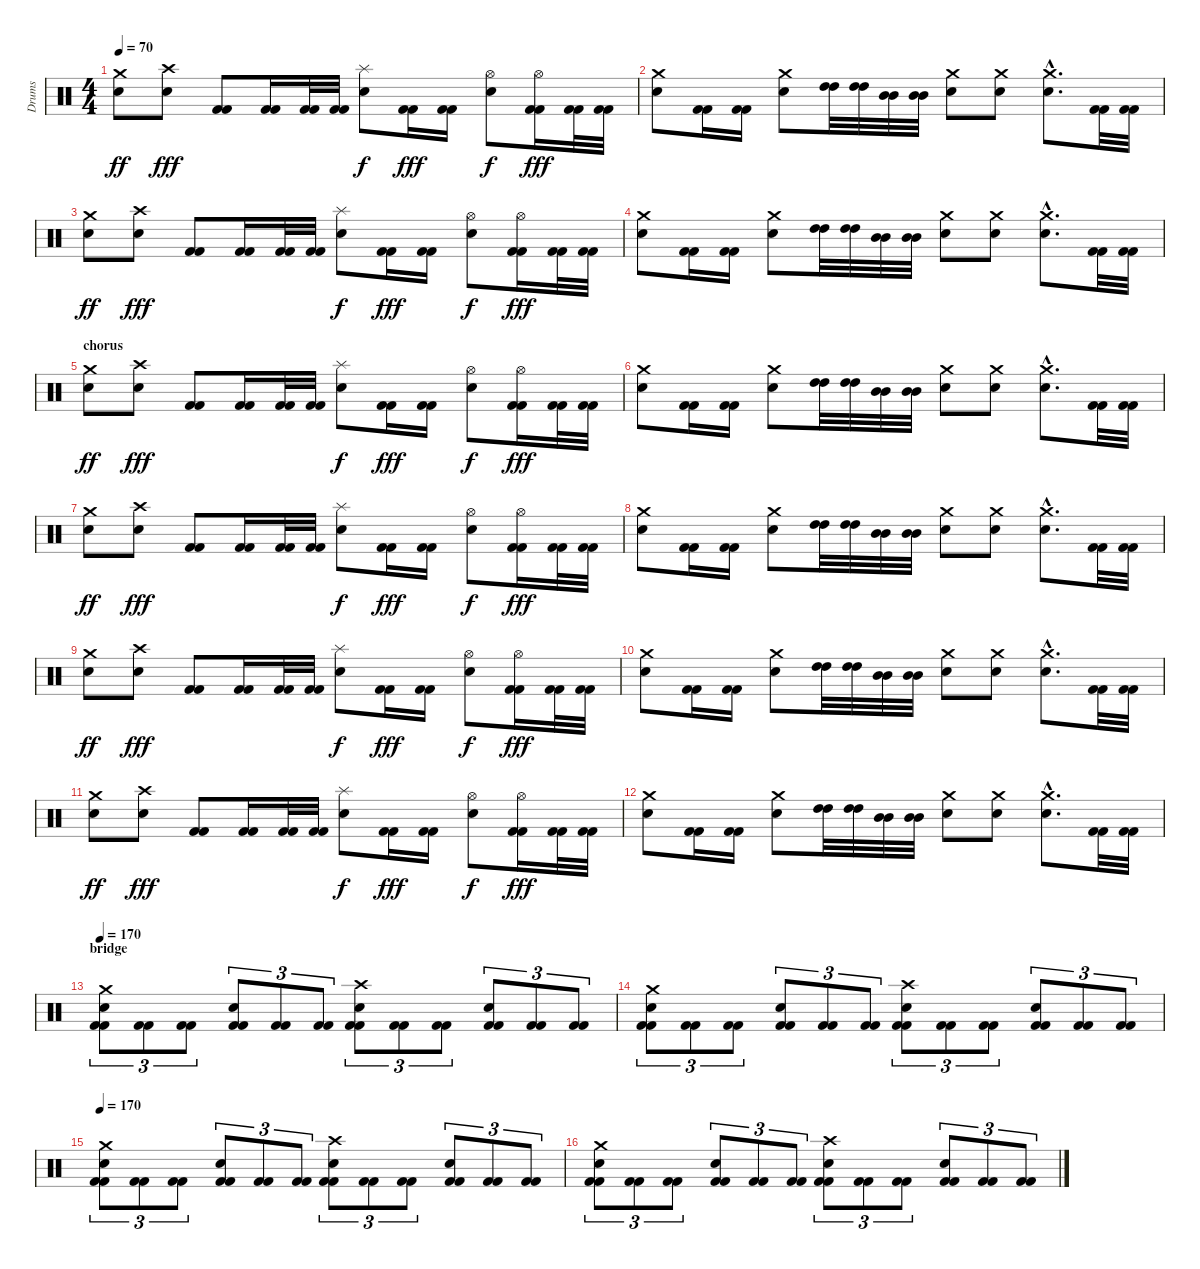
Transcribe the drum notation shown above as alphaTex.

\track ("Drums" "Drums") {instrument percussion}
\staff {score}
\articulation defaults
\ts (4 4)
\tempo 70
\clef neutral
\ks c
("Crash medium (hit)" "Snare (hit) 2").8{dy ff} ("Crash high (hit)" "Snare (hit) 2").8{dy fff} ("Kick (hit) 2" "Kick (hit) 2").8 ("Kick (hit) 2" "Kick (hit) 2").16 ("Kick (hit) 2" "Kick (hit) 2").32 ("Kick (hit) 2" "Kick (hit) 2").32 ("Splash (hit)" "Electric Snare (hit)").8{dy f} ("Kick (hit) 2" "Kick (hit) 2").16{dy fff} ("Kick (hit) 2" "Kick (hit) 2").16 ("Hi-Hat (open)" "Snare (hit) 2").8{dy f} ("Hi-Hat (open)" "Kick (hit) 2" "Kick (hit) 2").16{dy fff} ("Kick (hit) 2" "Kick (hit) 2").32 ("Kick (hit) 2" "Kick (hit) 2").32 |
("Crash medium (hit)" "Electric Snare (hit)").8 ("Kick (hit) 2" "Kick (hit) 2").16 ("Kick (hit) 2" "Kick (hit) 2").16 ("Crash medium (hit)" "Electric Snare (hit)").8 ("High Tom (hit)" "High Tom (hit)").32 ("High Tom (hit)" "High Tom (hit)").32 ("Mid Tom (hit)" "Mid Tom (hit)").32 ("Mid Tom (hit)" "Mid Tom (hit)").32 ("Crash medium (hit)" "Electric Snare (hit)").8 ("Crash medium (hit)" "Electric Snare (hit)").8 ("Crash medium (hit)"{hac} "Electric Snare (hit)"{hac}).8{d} ("Kick (hit) 2" "Kick (hit) 2").32 ("Kick (hit) 2" "Kick (hit) 2").32 |
("Crash medium (hit)" "Snare (hit) 2").8{dy ff} ("Crash high (hit)" "Snare (hit) 2").8{dy fff} ("Kick (hit) 2" "Kick (hit) 2").8 ("Kick (hit) 2" "Kick (hit) 2").16 ("Kick (hit) 2" "Kick (hit) 2").32 ("Kick (hit) 2" "Kick (hit) 2").32 ("Splash (hit)" "Electric Snare (hit)").8{dy f} ("Kick (hit) 2" "Kick (hit) 2").16{dy fff} ("Kick (hit) 2" "Kick (hit) 2").16 ("Hi-Hat (open)" "Snare (hit) 2").8{dy f} ("Hi-Hat (open)" "Kick (hit) 2" "Kick (hit) 2").16{dy fff} ("Kick (hit) 2" "Kick (hit) 2").32 ("Kick (hit) 2" "Kick (hit) 2").32 |
("Crash medium (hit)" "Electric Snare (hit)").8 ("Kick (hit) 2" "Kick (hit) 2").16 ("Kick (hit) 2" "Kick (hit) 2").16 ("Crash medium (hit)" "Electric Snare (hit)").8 ("High Tom (hit)" "High Tom (hit)").32 ("High Tom (hit)" "High Tom (hit)").32 ("Mid Tom (hit)" "Mid Tom (hit)").32 ("Mid Tom (hit)" "Mid Tom (hit)").32 ("Crash medium (hit)" "Electric Snare (hit)").8 ("Crash medium (hit)" "Electric Snare (hit)").8 ("Crash medium (hit)"{hac} "Electric Snare (hit)"{hac}).8{d} ("Kick (hit) 2" "Kick (hit) 2").32 ("Kick (hit) 2" "Kick (hit) 2").32 |
\section ("" "chorus")
("Crash medium (hit)" "Snare (hit) 2").8{dy ff} ("Crash high (hit)" "Snare (hit) 2").8{dy fff} ("Kick (hit) 2" "Kick (hit) 2").8 ("Kick (hit) 2" "Kick (hit) 2").16 ("Kick (hit) 2" "Kick (hit) 2").32 ("Kick (hit) 2" "Kick (hit) 2").32 ("Splash (hit)" "Electric Snare (hit)").8{dy f} ("Kick (hit) 2" "Kick (hit) 2").16{dy fff} ("Kick (hit) 2" "Kick (hit) 2").16 ("Hi-Hat (open)" "Snare (hit) 2").8{dy f} ("Hi-Hat (open)" "Kick (hit) 2" "Kick (hit) 2").16{dy fff} ("Kick (hit) 2" "Kick (hit) 2").32 ("Kick (hit) 2" "Kick (hit) 2").32 |
("Crash medium (hit)" "Electric Snare (hit)").8 ("Kick (hit) 2" "Kick (hit) 2").16 ("Kick (hit) 2" "Kick (hit) 2").16 ("Crash medium (hit)" "Electric Snare (hit)").8 ("High Tom (hit)" "High Tom (hit)").32 ("High Tom (hit)" "High Tom (hit)").32 ("Mid Tom (hit)" "Mid Tom (hit)").32 ("Mid Tom (hit)" "Mid Tom (hit)").32 ("Crash medium (hit)" "Electric Snare (hit)").8 ("Crash medium (hit)" "Electric Snare (hit)").8 ("Crash medium (hit)"{hac} "Electric Snare (hit)"{hac}).8{d} ("Kick (hit) 2" "Kick (hit) 2").32 ("Kick (hit) 2" "Kick (hit) 2").32 |
("Crash medium (hit)" "Snare (hit) 2").8{dy ff} ("Crash high (hit)" "Snare (hit) 2").8{dy fff} ("Kick (hit) 2" "Kick (hit) 2").8 ("Kick (hit) 2" "Kick (hit) 2").16 ("Kick (hit) 2" "Kick (hit) 2").32 ("Kick (hit) 2" "Kick (hit) 2").32 ("Splash (hit)" "Electric Snare (hit)").8{dy f} ("Kick (hit) 2" "Kick (hit) 2").16{dy fff} ("Kick (hit) 2" "Kick (hit) 2").16 ("Hi-Hat (open)" "Snare (hit) 2").8{dy f} ("Hi-Hat (open)" "Kick (hit) 2" "Kick (hit) 2").16{dy fff} ("Kick (hit) 2" "Kick (hit) 2").32 ("Kick (hit) 2" "Kick (hit) 2").32 |
("Crash medium (hit)" "Electric Snare (hit)").8 ("Kick (hit) 2" "Kick (hit) 2").16 ("Kick (hit) 2" "Kick (hit) 2").16 ("Crash medium (hit)" "Electric Snare (hit)").8 ("High Tom (hit)" "High Tom (hit)").32 ("High Tom (hit)" "High Tom (hit)").32 ("Mid Tom (hit)" "Mid Tom (hit)").32 ("Mid Tom (hit)" "Mid Tom (hit)").32 ("Crash medium (hit)" "Electric Snare (hit)").8 ("Crash medium (hit)" "Electric Snare (hit)").8 ("Crash medium (hit)"{hac} "Electric Snare (hit)"{hac}).8{d} ("Kick (hit) 2" "Kick (hit) 2").32 ("Kick (hit) 2" "Kick (hit) 2").32 |
("Crash medium (hit)" "Snare (hit) 2").8{dy ff} ("Crash high (hit)" "Snare (hit) 2").8{dy fff} ("Kick (hit) 2" "Kick (hit) 2").8 ("Kick (hit) 2" "Kick (hit) 2").16 ("Kick (hit) 2" "Kick (hit) 2").32 ("Kick (hit) 2" "Kick (hit) 2").32 ("Splash (hit)" "Electric Snare (hit)").8{dy f} ("Kick (hit) 2" "Kick (hit) 2").16{dy fff} ("Kick (hit) 2" "Kick (hit) 2").16 ("Hi-Hat (open)" "Snare (hit) 2").8{dy f} ("Hi-Hat (open)" "Kick (hit) 2" "Kick (hit) 2").16{dy fff} ("Kick (hit) 2" "Kick (hit) 2").32 ("Kick (hit) 2" "Kick (hit) 2").32 |
("Crash medium (hit)" "Electric Snare (hit)").8 ("Kick (hit) 2" "Kick (hit) 2").16 ("Kick (hit) 2" "Kick (hit) 2").16 ("Crash medium (hit)" "Electric Snare (hit)").8 ("High Tom (hit)" "High Tom (hit)").32 ("High Tom (hit)" "High Tom (hit)").32 ("Mid Tom (hit)" "Mid Tom (hit)").32 ("Mid Tom (hit)" "Mid Tom (hit)").32 ("Crash medium (hit)" "Electric Snare (hit)").8 ("Crash medium (hit)" "Electric Snare (hit)").8 ("Crash medium (hit)"{hac} "Electric Snare (hit)"{hac}).8{d} ("Kick (hit) 2" "Kick (hit) 2").32 ("Kick (hit) 2" "Kick (hit) 2").32 |
("Crash medium (hit)" "Snare (hit) 2").8{dy ff} ("Crash high (hit)" "Snare (hit) 2").8{dy fff} ("Kick (hit) 2" "Kick (hit) 2").8 ("Kick (hit) 2" "Kick (hit) 2").16 ("Kick (hit) 2" "Kick (hit) 2").32 ("Kick (hit) 2" "Kick (hit) 2").32 ("Splash (hit)" "Electric Snare (hit)").8{dy f} ("Kick (hit) 2" "Kick (hit) 2").16{dy fff} ("Kick (hit) 2" "Kick (hit) 2").16 ("Hi-Hat (open)" "Snare (hit) 2").8{dy f} ("Hi-Hat (open)" "Kick (hit) 2" "Kick (hit) 2").16{dy fff} ("Kick (hit) 2" "Kick (hit) 2").32 ("Kick (hit) 2" "Kick (hit) 2").32 |
("Crash medium (hit)" "Electric Snare (hit)").8 ("Kick (hit) 2" "Kick (hit) 2").16 ("Kick (hit) 2" "Kick (hit) 2").16 ("Crash medium (hit)" "Electric Snare (hit)").8 ("High Tom (hit)" "High Tom (hit)").32 ("High Tom (hit)" "High Tom (hit)").32 ("Mid Tom (hit)" "Mid Tom (hit)").32 ("Mid Tom (hit)" "Mid Tom (hit)").32 ("Crash medium (hit)" "Electric Snare (hit)").8 ("Crash medium (hit)" "Electric Snare (hit)").8 ("Crash medium (hit)"{hac} "Electric Snare (hit)"{hac}).8{d} ("Kick (hit) 2" "Kick (hit) 2").32 ("Kick (hit) 2" "Kick (hit) 2").32 |
\section ("" "bridge")
\tempo 170
("Crash medium (hit)" "Electric Snare (hit)" "Kick (hit) 2" "Kick (hit) 2").8{tu (3 2)} ("Kick (hit) 2" "Kick (hit) 2").8{tu (3 2)} ("Kick (hit) 2" "Kick (hit) 2").8{tu (3 2)} ("Electric Snare (hit)" "Kick (hit) 2" "Kick (hit) 2").8{tu (3 2)} ("Kick (hit) 2" "Kick (hit) 2").8{tu (3 2)} ("Kick (hit) 2" "Kick (hit) 2").8{tu (3 2)} ("Crash high (hit)" "Electric Snare (hit)" "Kick (hit) 2" "Kick (hit) 2").8{tu (3 2)} ("Kick (hit) 2" "Kick (hit) 2").8{tu (3 2)} ("Kick (hit) 2" "Kick (hit) 2").8{tu (3 2)} ("Electric Snare (hit)" "Kick (hit) 2" "Kick (hit) 2").8{tu (3 2)} ("Kick (hit) 2" "Kick (hit) 2").8{tu (3 2)} ("Kick (hit) 2" "Kick (hit) 2").8{tu (3 2)} |
("Crash medium (hit)" "Electric Snare (hit)" "Kick (hit) 2" "Kick (hit) 2").8{tu (3 2)} ("Kick (hit) 2" "Kick (hit) 2").8{tu (3 2)} ("Kick (hit) 2" "Kick (hit) 2").8{tu (3 2)} ("Electric Snare (hit)" "Kick (hit) 2" "Kick (hit) 2").8{tu (3 2)} ("Kick (hit) 2" "Kick (hit) 2").8{tu (3 2)} ("Kick (hit) 2" "Kick (hit) 2").8{tu (3 2)} ("Crash high (hit)" "Electric Snare (hit)" "Kick (hit) 2" "Kick (hit) 2").8{tu (3 2)} ("Kick (hit) 2" "Kick (hit) 2").8{tu (3 2)} ("Kick (hit) 2" "Kick (hit) 2").8{tu (3 2)} ("Electric Snare (hit)" "Kick (hit) 2" "Kick (hit) 2").8{tu (3 2)} ("Kick (hit) 2" "Kick (hit) 2").8{tu (3 2)} ("Kick (hit) 2" "Kick (hit) 2").8{tu (3 2)} |
\tempo 170
("Crash medium (hit)" "Electric Snare (hit)" "Kick (hit) 2" "Kick (hit) 2").8{tu (3 2)} ("Kick (hit) 2" "Kick (hit) 2").8{tu (3 2)} ("Kick (hit) 2" "Kick (hit) 2").8{tu (3 2)} ("Electric Snare (hit)" "Kick (hit) 2" "Kick (hit) 2").8{tu (3 2)} ("Kick (hit) 2" "Kick (hit) 2").8{tu (3 2)} ("Kick (hit) 2" "Kick (hit) 2").8{tu (3 2)} ("Crash high (hit)" "Electric Snare (hit)" "Kick (hit) 2" "Kick (hit) 2").8{tu (3 2)} ("Kick (hit) 2" "Kick (hit) 2").8{tu (3 2)} ("Kick (hit) 2" "Kick (hit) 2").8{tu (3 2)} ("Electric Snare (hit)" "Kick (hit) 2" "Kick (hit) 2").8{tu (3 2)} ("Kick (hit) 2" "Kick (hit) 2").8{tu (3 2)} ("Kick (hit) 2" "Kick (hit) 2").8{tu (3 2)} |
("Crash medium (hit)" "Electric Snare (hit)" "Kick (hit) 2" "Kick (hit) 2").8{tu (3 2)} ("Kick (hit) 2" "Kick (hit) 2").8{tu (3 2)} ("Kick (hit) 2" "Kick (hit) 2").8{tu (3 2)} ("Electric Snare (hit)" "Kick (hit) 2" "Kick (hit) 2").8{tu (3 2)} ("Kick (hit) 2" "Kick (hit) 2").8{tu (3 2)} ("Kick (hit) 2" "Kick (hit) 2").8{tu (3 2)} ("Crash high (hit)" "Electric Snare (hit)" "Kick (hit) 2" "Kick (hit) 2").8{tu (3 2)} ("Kick (hit) 2" "Kick (hit) 2").8{tu (3 2)} ("Kick (hit) 2" "Kick (hit) 2").8{tu (3 2)} ("Electric Snare (hit)" "Kick (hit) 2" "Kick (hit) 2").8{tu (3 2)} ("Kick (hit) 2" "Kick (hit) 2").8{tu (3 2)} ("Kick (hit) 2" "Kick (hit) 2").8{tu (3 2)}
